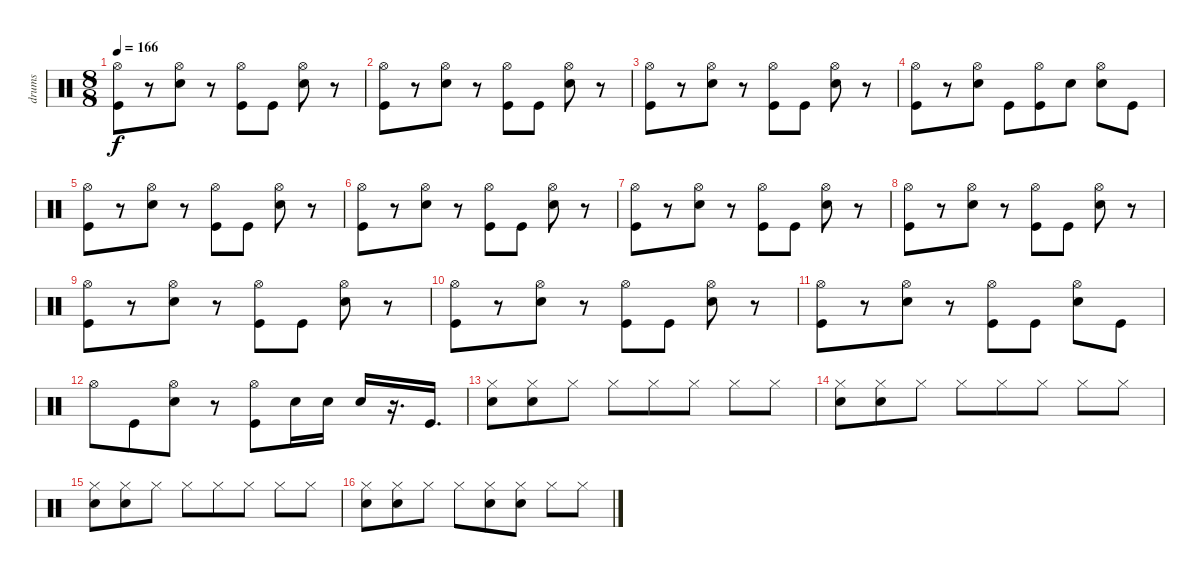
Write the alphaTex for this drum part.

\track ("drums" "drums") {instrument percussion}
\staff {score}
\articulation defaults
\ts (8 8)
\tempo 166
\clef neutral
\ks c
("Hi-Hat (open)" "Kick (hit)").8{dy f} r.8 ("Hi-Hat (open)" "Snare (hit) 2").8 r.8 ("Hi-Hat (open)" "Kick (hit)").8 "Kick (hit)".8 ("Hi-Hat (open)" "Snare (hit) 2").8 r.8 |
("Hi-Hat (open)" "Kick (hit)").8 r.8 ("Hi-Hat (open)" "Snare (hit) 2").8 r.8 ("Hi-Hat (open)" "Kick (hit)").8 "Kick (hit)".8 ("Hi-Hat (open)" "Snare (hit) 2").8 r.8 |
("Hi-Hat (open)" "Kick (hit)").8 r.8 ("Hi-Hat (open)" "Snare (hit) 2").8 r.8 ("Hi-Hat (open)" "Kick (hit)").8 "Kick (hit)".8 ("Hi-Hat (open)" "Snare (hit) 2").8 r.8 |
("Hi-Hat (open)" "Kick (hit)").8 r.8 ("Hi-Hat (open)" "Snare (hit) 2").8 "Kick (hit)".8 ("Hi-Hat (open)" "Kick (hit)").8 "Snare (hit) 2".8 ("Hi-Hat (open)" "Snare (hit) 2").8 "Kick (hit)".8 |
("Hi-Hat (open)" "Kick (hit)").8 r.8 ("Hi-Hat (open)" "Snare (hit) 2").8 r.8 ("Hi-Hat (open)" "Kick (hit)").8 "Kick (hit)".8 ("Hi-Hat (open)" "Snare (hit) 2").8 r.8 |
("Hi-Hat (open)" "Kick (hit)").8 r.8 ("Hi-Hat (open)" "Snare (hit) 2").8 r.8 ("Hi-Hat (open)" "Kick (hit)").8 "Kick (hit)".8 ("Hi-Hat (open)" "Snare (hit) 2").8 r.8 |
("Hi-Hat (open)" "Kick (hit)").8 r.8 ("Hi-Hat (open)" "Snare (hit) 2").8 r.8 ("Hi-Hat (open)" "Kick (hit)").8 "Kick (hit)".8 ("Hi-Hat (open)" "Snare (hit) 2").8 r.8 |
("Hi-Hat (open)" "Kick (hit)").8 r.8 ("Hi-Hat (open)" "Snare (hit) 2").8 r.8 ("Hi-Hat (open)" "Kick (hit)").8 "Kick (hit)".8 ("Hi-Hat (open)" "Snare (hit) 2").8 r.8 |
("Hi-Hat (open)" "Kick (hit)").8 r.8 ("Hi-Hat (open)" "Snare (hit) 2").8 r.8 ("Hi-Hat (open)" "Kick (hit)").8 "Kick (hit)".8 ("Hi-Hat (open)" "Snare (hit) 2").8 r.8 |
("Hi-Hat (open)" "Kick (hit)").8 r.8 ("Hi-Hat (open)" "Snare (hit) 2").8 r.8 ("Hi-Hat (open)" "Kick (hit)").8 "Kick (hit)".8 ("Hi-Hat (open)" "Snare (hit) 2").8 r.8 |
("Hi-Hat (open)" "Kick (hit)").8 r.8 ("Hi-Hat (open)" "Snare (hit) 2").8 r.8 ("Hi-Hat (open)" "Kick (hit)").8 "Kick (hit)".8 ("Hi-Hat (open)" "Snare (hit) 2").8 "Kick (hit)".8 |
"Hi-Hat (open)".8 "Kick (hit)".8 ("Hi-Hat (open)" "Snare (hit) 2").8 r.8 ("Hi-Hat (open)" "Kick (hit)").8 "Snare (hit) 2".16 "Snare (hit) 2".16 "Snare (hit) 2".16 r.16{d} "Kick (hit)".16{d} |
("Hi-Hat (closed)" "Snare (hit) 2").8 ("Hi-Hat (closed)" "Snare (hit) 2").8 "Hi-Hat (closed)".8 "Hi-Hat (closed)".8 "Hi-Hat (closed)".8 "Hi-Hat (closed)".8 "Hi-Hat (closed)".8 "Hi-Hat (closed)".8 |
("Hi-Hat (closed)" "Snare (hit) 2").8 ("Hi-Hat (closed)" "Snare (hit) 2").8 "Hi-Hat (closed)".8 "Hi-Hat (closed)".8 "Hi-Hat (closed)".8 "Hi-Hat (closed)".8 "Hi-Hat (closed)".8 "Hi-Hat (closed)".8 |
("Hi-Hat (closed)" "Snare (hit) 2").8 ("Hi-Hat (closed)" "Snare (hit) 2").8 "Hi-Hat (closed)".8 "Hi-Hat (closed)".8 "Hi-Hat (closed)".8 "Hi-Hat (closed)".8 "Hi-Hat (closed)".8 "Hi-Hat (closed)".8 |
("Hi-Hat (closed)" "Snare (hit) 2").8 ("Hi-Hat (closed)" "Snare (hit) 2").8 "Hi-Hat (closed)".8 "Hi-Hat (closed)".8 ("Hi-Hat (closed)" "Snare (hit) 2").8 ("Hi-Hat (closed)" "Snare (hit) 2").8 "Hi-Hat (closed)".8 "Hi-Hat (closed)".8
